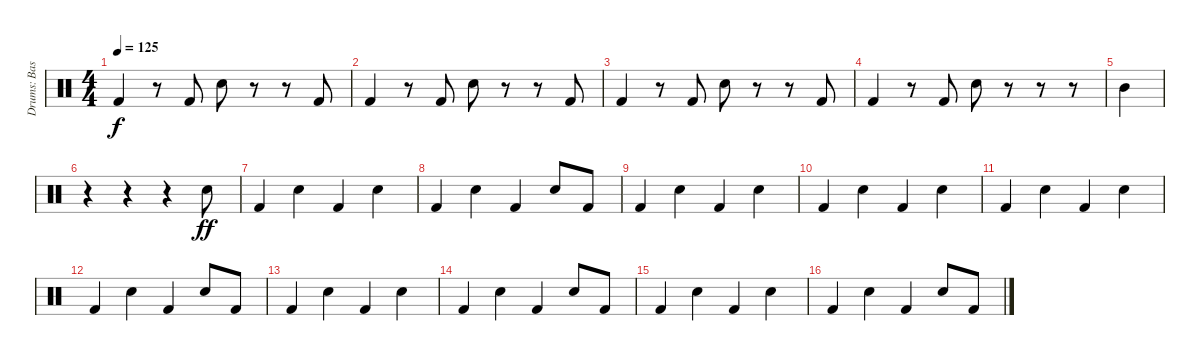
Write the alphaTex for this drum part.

\track ("Drums: Bass, Snare" "Drums: Bas") {instrument percussion}
\staff {score}
\articulation defaults
\ts (4 4)
\tempo 125
\clef neutral
\ks c "Kick (hit) 2".4{dy f}
r.8 "Kick (hit) 2".8 "Electric Snare (hit)".8 r.8 r.8 "Kick (hit) 2".8 |
"Kick (hit) 2".4 r.8 "Kick (hit) 2".8 "Electric Snare (hit)".8 r.8 r.8 "Kick (hit) 2".8 |
"Kick (hit) 2".4 r.8 "Kick (hit) 2".8 "Electric Snare (hit)".8 r.8 r.8 "Kick (hit) 2".8 |
"Kick (hit) 2".4 r.8 "Kick (hit) 2".8 "Electric Snare (hit)".8 r.8 r.8 r.8 |
"Mid Tom (hit)".4 |
r.4 r.4 r.4 "Electric Snare (hit)".8{dy ff} |
"Kick (hit) 2".4 "Electric Snare (hit)".4 "Kick (hit) 2".4 "Electric Snare (hit)".4 |
"Kick (hit) 2".4 "Electric Snare (hit)".4 "Kick (hit) 2".4 "Electric Snare (hit)".8 "Kick (hit) 2".8 |
"Kick (hit) 2".4 "Electric Snare (hit)".4 "Kick (hit) 2".4 "Electric Snare (hit)".4 |
"Kick (hit) 2".4 "Electric Snare (hit)".4 "Kick (hit) 2".4 "Electric Snare (hit)".4 |
"Kick (hit) 2".4 "Electric Snare (hit)".4 "Kick (hit) 2".4 "Electric Snare (hit)".4 |
"Kick (hit) 2".4 "Electric Snare (hit)".4 "Kick (hit) 2".4 "Electric Snare (hit)".8 "Kick (hit) 2".8 |
"Kick (hit) 2".4 "Electric Snare (hit)".4 "Kick (hit) 2".4 "Electric Snare (hit)".4 |
"Kick (hit) 2".4 "Electric Snare (hit)".4 "Kick (hit) 2".4 "Electric Snare (hit)".8 "Kick (hit) 2".8 |
"Kick (hit) 2".4 "Electric Snare (hit)".4 "Kick (hit) 2".4 "Electric Snare (hit)".4 |
"Kick (hit) 2".4 "Electric Snare (hit)".4 "Kick (hit) 2".4 "Electric Snare (hit)".8 "Kick (hit) 2".8
